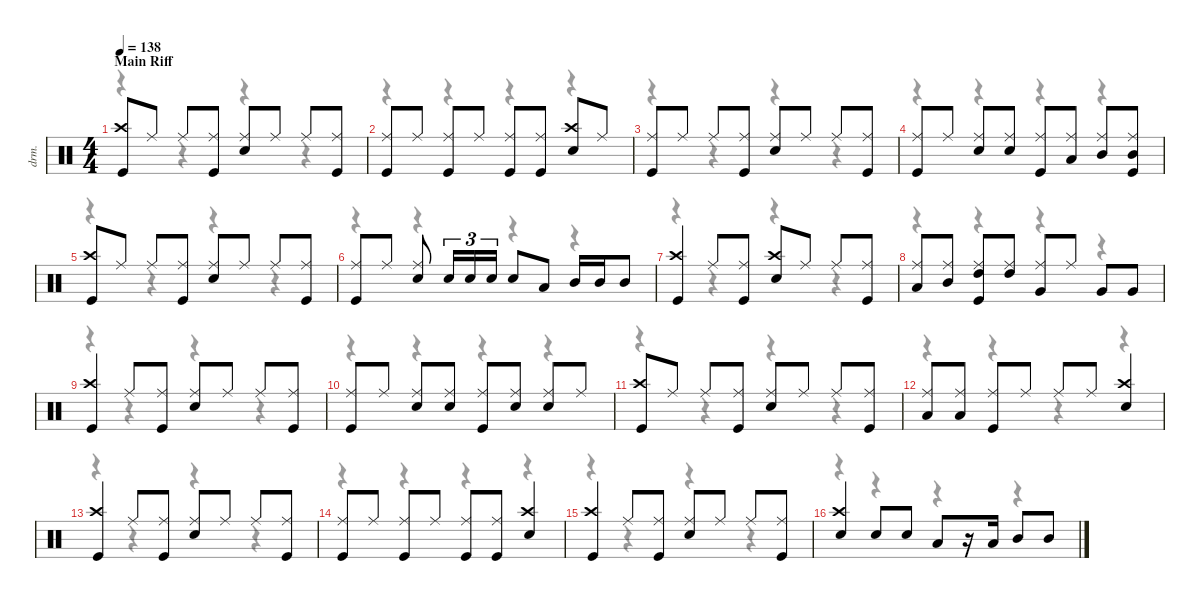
\defaultSystemsLayout 4
\hideDynamics
\bracketExtendMode nobrackets
\track ("Drumkit" "drm.") {instrument percussion}
\staff {score}
\articulation defaults
\voice
\ts (4 4)
\section ("" "Main Riff")
\tempo 138
\clef neutral
\ks c
("Crash high (hit)" "Kick (hit)").8{dy f} "Ride (middle)".8 "Ride (middle)".8 ("Ride (middle)" "Kick (hit)").8 ("Snare (hit) 2" "Ride (middle)").8 "Ride (middle)".8 "Ride (middle)".8 ("Ride (middle)" "Kick (hit)").8 |
("Kick (hit)" "Ride (middle)").8 "Ride (middle)".8 ("Kick (hit)" "Ride (middle)").8 "Ride (middle)".8 ("Kick (hit)" "Ride (middle)").8 ("Kick (hit)" "Ride (middle)").8 ("Snare (hit) 2" "Crash high (hit)").8 "Ride (middle)".8 |
("Kick (hit)" "Ride (middle)").8 "Ride (middle)".8 "Ride (middle)".8 ("Kick (hit)" "Ride (middle)").8 ("Snare (hit) 2" "Ride (middle)").8 "Ride (middle)".8 "Ride (middle)".8 ("Kick (hit)" "Ride (middle)").8 |
("Kick (hit)" "Ride (middle)").8 "Ride (middle)".8 ("Snare (hit) 2" "Ride (middle)").8 ("Snare (hit) 2" "Ride (middle)").8 ("Kick (hit)" "Ride (middle)").8 ("Low Tom (hit)" "Ride (middle)").8 ("Mid Tom (hit)" "Ride (middle)").8 ("Mid Tom (hit)" "Kick (hit)" "Ride (middle)").8 |
("Kick (hit)" "Crash high (hit)").8 "Ride (middle)".8 "Ride (middle)".8 ("Kick (hit)" "Ride (middle)").8 ("Snare (hit) 2" "Ride (middle)").8 "Ride (middle)".8 "Ride (middle)".8 ("Kick (hit)" "Ride (middle)").8 |
("Ride (middle)" "Kick (hit)").8 "Ride (middle)".8 ("Snare (hit) 2" "Ride (middle)").8 "Snare (hit) 2".16{tu (3 2)} "Snare (hit) 2".16{tu (3 2)} "Snare (hit) 2".16{tu (3 2)} "Snare (hit) 2".8 "Low Tom (hit)".8 "Mid Tom (hit)".16 "Mid Tom (hit)".16 "Mid Tom (hit)".8 |
("Kick (hit)" "Crash high (hit)").4 "Ride (middle)".8 ("Kick (hit)" "Ride (middle)").8 ("Snare (hit) 2" "Crash high (hit)").8 "Ride (middle)".8 "Ride (middle)".8 ("Kick (hit)" "Ride (middle)").8 |
("Low Tom (hit)" "Ride (middle)").8 ("Mid Tom (hit)" "Ride (middle)").8 ("Kick (hit)" "High Tom (hit)" "Ride (middle)").8 ("High Tom (hit)" "Ride (middle)").8 ("Very Low Tom (hit)" "Ride (middle)").8 "Ride (middle)".8 "Very Low Tom (hit)".8 "Very Low Tom (hit)".8 |
("Kick (hit)" "Crash high (hit)").4 "Ride (middle)".8 ("Ride (middle)" "Kick (hit)").8 ("Snare (hit) 2" "Ride (middle)").8 "Ride (middle)".8 "Ride (middle)".8 ("Ride (middle)" "Kick (hit)").8 |
("Kick (hit)" "Ride (middle)").8 "Ride (middle)".8 ("Snare (hit) 2" "Ride (middle)").8 ("Snare (hit) 2" "Ride (middle)").8 ("Kick (hit)" "Ride (middle)").8 ("Snare (hit) 2" "Ride (middle)").8 ("Snare (hit) 2" "Ride (middle)").8 "Ride (middle)".8 |
("Kick (hit)" "Crash high (hit)").8 "Ride (middle)".8 "Ride (middle)".8 ("Kick (hit)" "Ride (middle)").8 ("Snare (hit) 2" "Ride (middle)").8 "Ride (middle)".8 "Ride (middle)".8 ("Kick (hit)" "Ride (middle)").8 |
("Low Tom (hit)" "Ride (middle)").8 ("Low Tom (hit)" "Ride (middle)").8 ("Kick (hit)" "Ride (middle)").8 "Ride (middle)".8 "Ride (middle)".8 "Ride (middle)".8 ("Snare (hit) 2" "Crash high (hit)").4 |
("Kick (hit)" "Crash high (hit)").4 "Ride (middle)".8 ("Ride (middle)" "Kick (hit)").8 ("Snare (hit) 2" "Ride (middle)").8 "Ride (middle)".8 "Ride (middle)".8 ("Ride (middle)" "Kick (hit)").8 |
("Ride (middle)" "Kick (hit)").8 "Ride (middle)".8 ("Ride (middle)" "Kick (hit)").8 "Ride (middle)".8 ("Ride (middle)" "Kick (hit)").8 ("Ride (middle)" "Kick (hit)").8 ("Crash high (hit)" "Snare (hit) 2").4 |
("Kick (hit)" "Crash high (hit)").4 "Ride (middle)".8 ("Ride (middle)" "Kick (hit)").8 ("Snare (hit) 2" "Ride (middle)").8 "Ride (middle)".8 "Ride (middle)".8 ("Ride (middle)" "Kick (hit)").8 |
("Crash high (hit)" "Snare (hit) 2").4 "Snare (hit) 2".8 "Snare (hit) 2".8 "Low Tom (hit)".8 r.16 "Low Tom (hit)".16 "Mid Tom (hit)".8 "Mid Tom (hit)".8
\voice
\clef neutral
\ottava regular
\simile none
\ks c
r.4{dy mf} r.4 r.4 r.4 |
r.4 r.4 r.4 r.4 |
r.4 r.4 r.4 r.4 |
r.4 r.4 r.4 r.4 |
r.4 r.4 r.4 r.4 |
r.4 r.4 r.4 r.4 |
r.4 r.4 r.4 r.4 |
r.4 r.4 r.4 r.4 |
r.4 r.4 r.4 r.4 |
r.4 r.4 r.4 r.4 |
r.4 r.4 r.4 r.4 |
r.4 r.4 r.4 r.4 |
r.4 r.4 r.4 r.4 |
r.4 r.4 r.4 r.4 |
r.4 r.4 r.4 r.4 |
r.4 r.4 r.4 r.4
